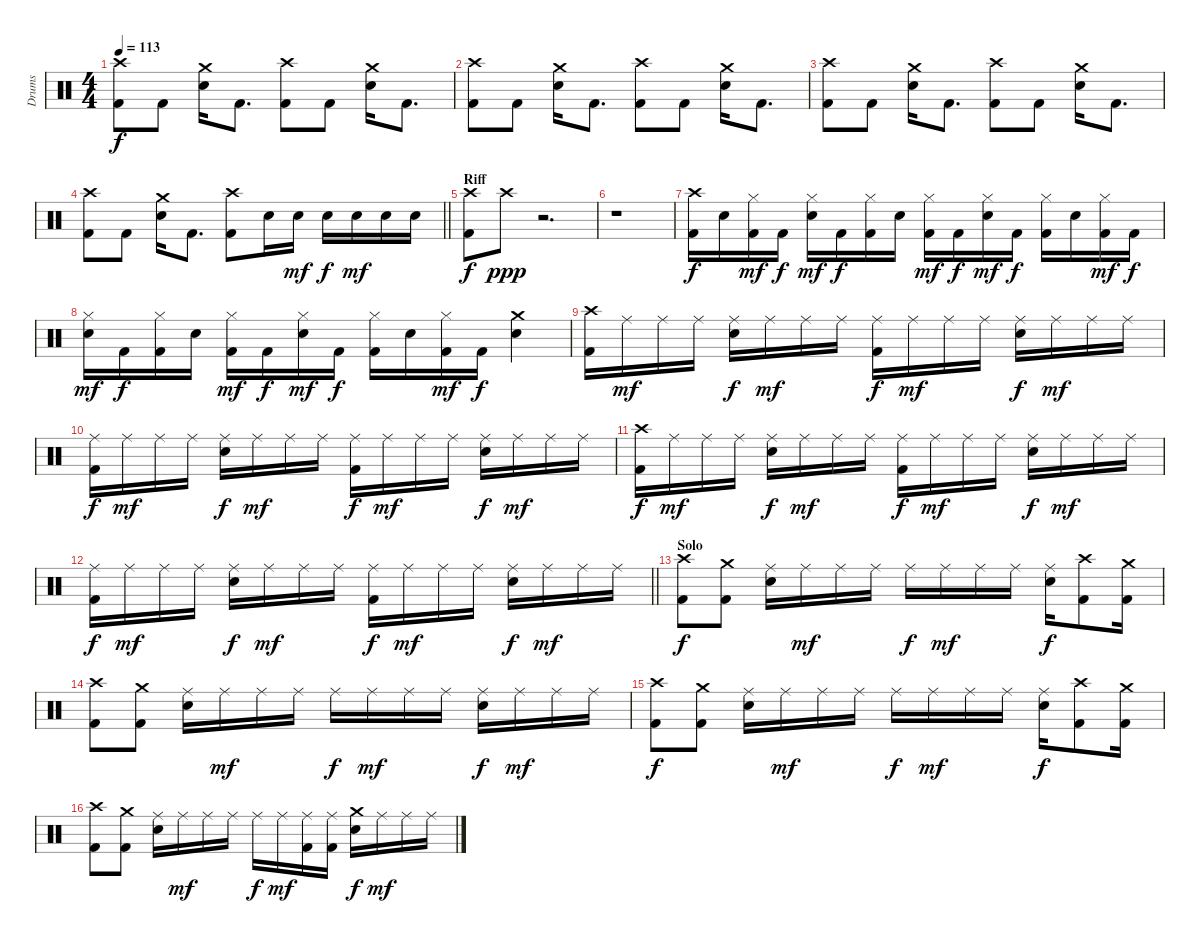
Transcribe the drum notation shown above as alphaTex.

\track ("Drums" "Drums") {instrument percussion}
\staff {score}
\articulation defaults
\ts (4 4)
\tempo 113
\clef neutral
\ks c
("Kick (hit) 2" "Crash high (hit)").8{dy f} "Kick (hit) 2".8 ("Crash medium (hit)" "Electric Snare (hit)").16 "Kick (hit) 2".8{d} ("Kick (hit) 2" "Crash high (hit)").8 "Kick (hit) 2".8 ("Crash medium (hit)" "Electric Snare (hit)").16 "Kick (hit) 2".8{d} |
("Kick (hit) 2" "Crash high (hit)").8 "Kick (hit) 2".8 ("Crash medium (hit)" "Electric Snare (hit)").16 "Kick (hit) 2".8{d} ("Kick (hit) 2" "Crash high (hit)").8 "Kick (hit) 2".8 ("Crash medium (hit)" "Electric Snare (hit)").16 "Kick (hit) 2".8{d} |
("Kick (hit) 2" "Crash high (hit)").8 "Kick (hit) 2".8 ("Crash medium (hit)" "Electric Snare (hit)").16 "Kick (hit) 2".8{d} ("Kick (hit) 2" "Crash high (hit)").8 "Kick (hit) 2".8 ("Crash medium (hit)" "Electric Snare (hit)").16 "Kick (hit) 2".8{d} |
\barLineRight lightlight
("Kick (hit) 2" "Crash high (hit)").8 "Kick (hit) 2".8 ("Crash medium (hit)" "Electric Snare (hit)").16 "Kick (hit) 2".8{d} ("Kick (hit) 2" "Crash high (hit)").8 "Electric Snare (hit)".16 "Electric Snare (hit)".16{dy mf} "Electric Snare (hit)".16{dy f} "Electric Snare (hit)".16{dy mf} "Electric Snare (hit)".16 "Electric Snare (hit)".16 |
\section ("" "Riff")
("Kick (hit) 2" "Crash high (hit)").8{dy f} "Crash high (hit)".8{dy ppp} r.2{d} |
r.1 |
("Kick (hit) 2" "Crash high (hit)").16{dy f} "Electric Snare (hit)".16 ("Kick (hit) 2" "Hi-Hat (closed)").16{dy mf} "Kick (hit) 2".16{dy f} ("Hi-Hat (closed)" "Electric Snare (hit)").16{dy mf} "Kick (hit) 2".16{dy f} ("Kick (hit) 2" "Hi-Hat (closed)").16 "Electric Snare (hit)".16 ("Kick (hit) 2" "Hi-Hat (closed)").16{dy mf} "Kick (hit) 2".16{dy f} ("Hi-Hat (closed)" "Electric Snare (hit)").16{dy mf} "Kick (hit) 2".16{dy f} ("Kick (hit) 2" "Hi-Hat (closed)").16 "Electric Snare (hit)".16 ("Kick (hit) 2" "Hi-Hat (closed)").16{dy mf} "Kick (hit) 2".16{dy f} |
("Hi-Hat (closed)" "Electric Snare (hit)").16{dy mf} "Kick (hit) 2".16{dy f} ("Kick (hit) 2" "Hi-Hat (closed)").16 "Electric Snare (hit)".16 ("Kick (hit) 2" "Hi-Hat (closed)").16{dy mf} "Kick (hit) 2".16{dy f} ("Hi-Hat (closed)" "Electric Snare (hit)").16{dy mf} "Kick (hit) 2".16{dy f} ("Kick (hit) 2" "Hi-Hat (closed)").16 "Electric Snare (hit)".16 ("Kick (hit) 2" "Hi-Hat (closed)").16{dy mf} "Kick (hit) 2".16{dy f} ("Crash medium (hit)" "Electric Snare (hit)").4 |
("Kick (hit) 2" "Crash high (hit)").16 "Ride (middle)".16{dy mf} "Ride (middle)".16 "Ride (middle)".16 ("Ride (middle)" "Electric Snare (hit)").16{dy f} "Ride (middle)".16{dy mf} "Ride (middle)".16 "Ride (middle)".16 ("Kick (hit) 2" "Ride (middle)").16{dy f} "Ride (middle)".16{dy mf} "Ride (middle)".16 "Ride (middle)".16 ("Ride (middle)" "Electric Snare (hit)").16{dy f} "Ride (middle)".16{dy mf} "Ride (middle)".16 "Ride (middle)".16 |
("Kick (hit) 2" "Ride (middle)").16{dy f} "Ride (middle)".16{dy mf} "Ride (middle)".16 "Ride (middle)".16 ("Ride (middle)" "Electric Snare (hit)").16{dy f} "Ride (middle)".16{dy mf} "Ride (middle)".16 "Ride (middle)".16 ("Kick (hit) 2" "Ride (middle)").16{dy f} "Ride (middle)".16{dy mf} "Ride (middle)".16 "Ride (middle)".16 ("Ride (middle)" "Electric Snare (hit)").16{dy f} "Ride (middle)".16{dy mf} "Ride (middle)".16 "Ride (middle)".16 |
("Kick (hit) 2" "Crash high (hit)").16{dy f} "Ride (middle)".16{dy mf} "Ride (middle)".16 "Ride (middle)".16 ("Ride (middle)" "Electric Snare (hit)").16{dy f} "Ride (middle)".16{dy mf} "Ride (middle)".16 "Ride (middle)".16 ("Kick (hit) 2" "Ride (middle)").16{dy f} "Ride (middle)".16{dy mf} "Ride (middle)".16 "Ride (middle)".16 ("Ride (middle)" "Electric Snare (hit)").16{dy f} "Ride (middle)".16{dy mf} "Ride (middle)".16 "Ride (middle)".16 |
\barLineRight lightlight
("Kick (hit) 2" "Ride (middle)").16{dy f} "Ride (middle)".16{dy mf} "Ride (middle)".16 "Ride (middle)".16 ("Ride (middle)" "Electric Snare (hit)").16{dy f} "Ride (middle)".16{dy mf} "Ride (middle)".16 "Ride (middle)".16 ("Kick (hit) 2" "Ride (middle)").16{dy f} "Ride (middle)".16{dy mf} "Ride (middle)".16 "Ride (middle)".16 ("Ride (middle)" "Electric Snare (hit)").16{dy f} "Ride (middle)".16{dy mf} "Ride (middle)".16 "Ride (middle)".16 |
\section ("" "Solo")
("Kick (hit) 2" "Crash high (hit)").8{dy f} ("Kick (hit) 2" "Crash medium (hit)").8 ("Ride (middle)" "Electric Snare (hit)").16 "Ride (middle)".16{dy mf} "Ride (middle)".16 "Ride (middle)".16 "Ride (middle)".16{dy f} "Ride (middle)".16{dy mf} "Ride (middle)".16 "Ride (middle)".16 ("Ride (middle)" "Electric Snare (hit)").16{dy f} ("Kick (hit) 2" "Crash high (hit)").8 ("Kick (hit) 2" "Crash medium (hit)").16 |
("Kick (hit) 2" "Crash high (hit)").8 ("Kick (hit) 2" "Crash medium (hit)").8 ("Ride (middle)" "Electric Snare (hit)").16 "Ride (middle)".16{dy mf} "Ride (middle)".16 "Ride (middle)".16 "Ride (middle)".16{dy f} "Ride (middle)".16{dy mf} "Ride (middle)".16 "Ride (middle)".16 ("Ride (middle)" "Electric Snare (hit)").16{dy f} "Ride (middle)".16{dy mf} "Ride (middle)".16 "Ride (middle)".16 |
("Kick (hit) 2" "Crash high (hit)").8{dy f} ("Kick (hit) 2" "Crash medium (hit)").8 ("Ride (middle)" "Electric Snare (hit)").16 "Ride (middle)".16{dy mf} "Ride (middle)".16 "Ride (middle)".16 "Ride (middle)".16{dy f} "Ride (middle)".16{dy mf} "Ride (middle)".16 "Ride (middle)".16 ("Ride (middle)" "Electric Snare (hit)").16{dy f} ("Kick (hit) 2" "Crash high (hit)").8 ("Kick (hit) 2" "Crash medium (hit)").16 |
("Kick (hit) 2" "Crash high (hit)").8 ("Kick (hit) 2" "Crash medium (hit)").8 ("Ride (middle)" "Electric Snare (hit)").16 "Ride (middle)".16{dy mf} "Ride (middle)".16 "Ride (middle)".16 "Ride (middle)".16{dy f} "Ride (middle)".16{dy mf} ("Kick (hit) 2" "Ride (middle)").16 ("Kick (hit) 2" "Ride (middle)").16 ("Crash medium (hit)" "Electric Snare (hit)").16{dy f} "Ride (middle)".16{dy mf} "Ride (middle)".16 "Ride (middle)".16
